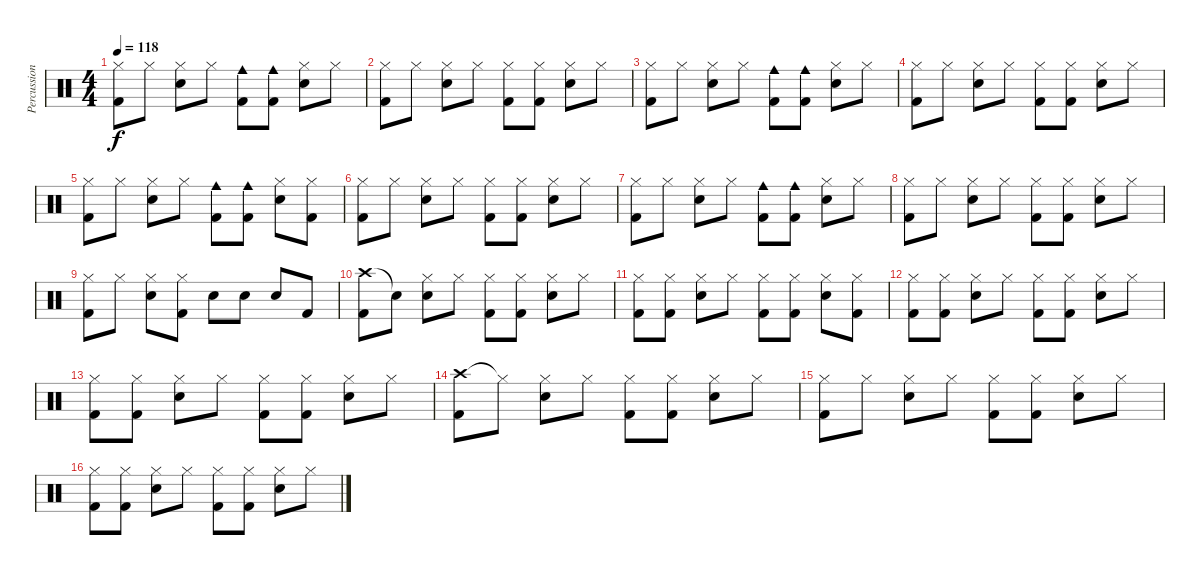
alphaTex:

\track ("Percussion" "Percussion") {instrument percussion}
\staff {score}
\articulation defaults
\ts (4 4)
\tempo 118
\clef neutral
\ks c
("Hi-Hat (closed)" "Kick (hit) 2").8{dy f} "Hi-Hat (closed)".8 ("Hi-Hat (closed)" "Snare (hit) 2").8 "Hi-Hat (closed)".8 ("Cowbell medium (hit)" "Kick (hit) 2").8 ("Cowbell medium (hit)" "Kick (hit) 2").8 ("Hi-Hat (closed)" "Snare (hit) 2").8 "Hi-Hat (closed)".8 |
("Hi-Hat (closed)" "Kick (hit) 2").8 "Hi-Hat (closed)".8 ("Hi-Hat (closed)" "Snare (hit) 2").8 "Hi-Hat (closed)".8 ("Hi-Hat (closed)" "Kick (hit) 2").8 ("Hi-Hat (closed)" "Kick (hit) 2").8 ("Hi-Hat (closed)" "Snare (hit) 2").8 "Hi-Hat (closed)".8 |
("Hi-Hat (closed)" "Kick (hit) 2").8 "Hi-Hat (closed)".8 ("Hi-Hat (closed)" "Snare (hit) 2").8 "Hi-Hat (closed)".8 ("Cowbell medium (hit)" "Kick (hit) 2").8 ("Cowbell medium (hit)" "Kick (hit) 2").8 ("Hi-Hat (closed)" "Snare (hit) 2").8 "Hi-Hat (closed)".8 |
("Hi-Hat (closed)" "Kick (hit) 2").8 "Hi-Hat (closed)".8 ("Hi-Hat (closed)" "Snare (hit) 2").8 "Hi-Hat (closed)".8 ("Hi-Hat (closed)" "Kick (hit) 2").8 ("Hi-Hat (closed)" "Kick (hit) 2").8 ("Hi-Hat (closed)" "Snare (hit) 2").8 "Hi-Hat (closed)".8 |
("Hi-Hat (closed)" "Kick (hit) 2").8 "Hi-Hat (closed)".8 ("Hi-Hat (closed)" "Snare (hit) 2").8 "Hi-Hat (closed)".8 ("Cowbell medium (hit)" "Kick (hit) 2").8 ("Cowbell medium (hit)" "Kick (hit) 2").8 ("Hi-Hat (closed)" "Snare (hit) 2").8 ("Hi-Hat (closed)" "Kick (hit) 2").8 |
("Hi-Hat (closed)" "Kick (hit) 2").8 "Hi-Hat (closed)".8 ("Hi-Hat (closed)" "Snare (hit) 2").8 "Hi-Hat (closed)".8 ("Hi-Hat (closed)" "Kick (hit) 2").8 ("Hi-Hat (closed)" "Kick (hit) 2").8 ("Hi-Hat (closed)" "Snare (hit) 2").8 "Hi-Hat (closed)".8 |
("Hi-Hat (closed)" "Kick (hit) 2").8 "Hi-Hat (closed)".8 ("Hi-Hat (closed)" "Snare (hit) 2").8 "Hi-Hat (closed)".8 ("Cowbell medium (hit)" "Kick (hit) 2").8 ("Cowbell medium (hit)" "Kick (hit) 2").8 ("Hi-Hat (closed)" "Snare (hit) 2").8 "Hi-Hat (closed)".8 |
("Hi-Hat (closed)" "Kick (hit) 2").8 "Hi-Hat (closed)".8 ("Hi-Hat (closed)" "Snare (hit) 2").8 "Hi-Hat (closed)".8 ("Hi-Hat (closed)" "Kick (hit) 2").8 ("Hi-Hat (closed)" "Kick (hit) 2").8 ("Hi-Hat (closed)" "Snare (hit) 2").8 "Hi-Hat (closed)".8 |
("Hi-Hat (closed)" "Kick (hit) 2").8 "Hi-Hat (closed)".8 ("Hi-Hat (closed)" "Snare (hit) 2").8 ("Hi-Hat (closed)" "Kick (hit) 2").8 "Snare (hit) 2".8 "Snare (hit) 2".8 "Snare (hit) 2".8 "Kick (hit) 2".8 |
("Crash high (hit)" "Kick (hit) 2").8 "Snare (hit)"{t}.8 ("Hi-Hat (closed)" "Snare (hit) 2").8 "Hi-Hat (closed)".8 ("Hi-Hat (closed)" "Kick (hit) 2").8 ("Hi-Hat (closed)" "Kick (hit) 2").8 ("Hi-Hat (closed)" "Snare (hit) 2").8 "Hi-Hat (closed)".8 |
("Hi-Hat (closed)" "Kick (hit) 2").8 ("Hi-Hat (closed)" "Kick (hit) 2").8 ("Hi-Hat (closed)" "Snare (hit) 2").8 "Hi-Hat (closed)".8 ("Hi-Hat (closed)" "Kick (hit) 2").8 ("Hi-Hat (closed)" "Kick (hit) 2").8 ("Hi-Hat (closed)" "Snare (hit) 2").8 ("Hi-Hat (closed)" "Kick (hit) 2").8 |
("Hi-Hat (closed)" "Kick (hit) 2").8 ("Hi-Hat (closed)" "Kick (hit) 2").8 ("Hi-Hat (closed)" "Snare (hit) 2").8 "Hi-Hat (closed)".8 ("Hi-Hat (closed)" "Kick (hit) 2").8 ("Hi-Hat (closed)" "Kick (hit) 2").8 ("Hi-Hat (closed)" "Snare (hit) 2").8 "Hi-Hat (closed)".8 |
("Hi-Hat (closed)" "Kick (hit) 2").8 ("Hi-Hat (closed)" "Kick (hit) 2").8 ("Hi-Hat (closed)" "Snare (hit) 2").8 "Hi-Hat (closed)".8 ("Hi-Hat (closed)" "Kick (hit) 2").8 ("Hi-Hat (closed)" "Kick (hit) 2").8 ("Hi-Hat (closed)" "Snare (hit) 2").8 "Hi-Hat (closed)".8 |
("Crash high (hit)" "Kick (hit) 2").8 "Hi-Hat (closed)"{t}.8 ("Hi-Hat (closed)" "Snare (hit) 2").8 "Hi-Hat (closed)".8 ("Hi-Hat (closed)" "Kick (hit) 2").8 ("Hi-Hat (closed)" "Kick (hit) 2").8 ("Hi-Hat (closed)" "Snare (hit) 2").8 "Hi-Hat (closed)".8 |
("Hi-Hat (closed)" "Kick (hit) 2").8 "Hi-Hat (closed)".8 ("Hi-Hat (closed)" "Snare (hit) 2").8 "Hi-Hat (closed)".8 ("Hi-Hat (closed)" "Kick (hit) 2").8 ("Hi-Hat (closed)" "Kick (hit) 2").8 ("Hi-Hat (closed)" "Snare (hit) 2").8 "Hi-Hat (closed)".8 |
("Hi-Hat (closed)" "Kick (hit) 2").8 ("Hi-Hat (closed)" "Kick (hit) 2").8 ("Hi-Hat (closed)" "Snare (hit) 2").8 "Hi-Hat (closed)".8 ("Hi-Hat (closed)" "Kick (hit) 2").8 ("Hi-Hat (closed)" "Kick (hit) 2").8 ("Hi-Hat (closed)" "Snare (hit) 2").8 "Hi-Hat (closed)".8
